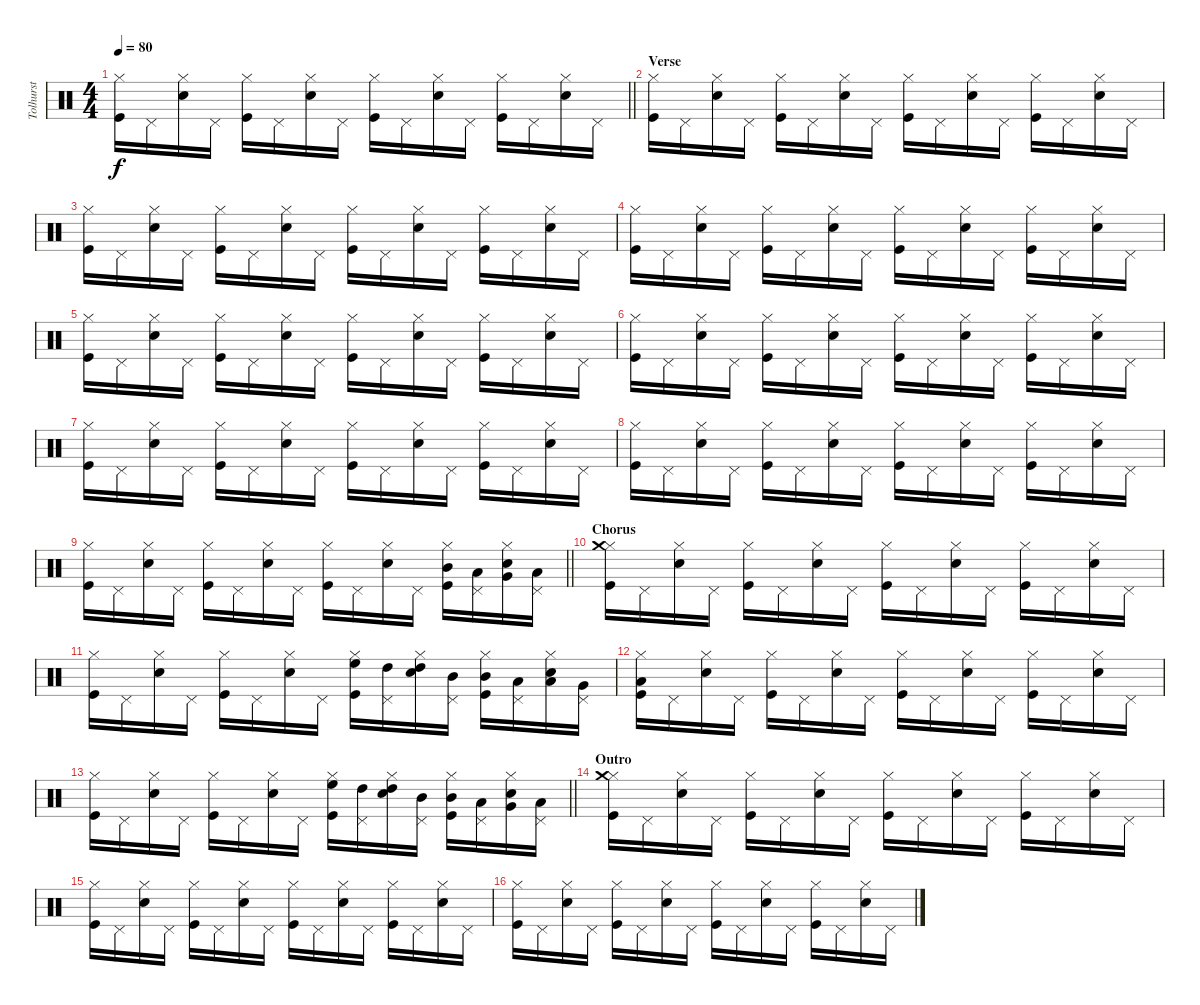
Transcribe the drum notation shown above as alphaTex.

\track ("Tolhurst" "Tolhurst") {instrument percussion}
\staff {score}
\articulation defaults
\ts (4 4)
\tempo 80
\clef neutral
\barLineRight lightlight
\ks c
("Kick (hit)" "Hi-Hat (closed)").16{dy f} "Pedal Hi-Hat (hit)".16 ("Snare (hit) 2" "Hi-Hat (closed)").16 "Pedal Hi-Hat (hit)".16 ("Kick (hit)" "Hi-Hat (closed)").16 "Pedal Hi-Hat (hit)".16 ("Snare (hit) 2" "Hi-Hat (closed)").16 "Pedal Hi-Hat (hit)".16 ("Kick (hit)" "Hi-Hat (closed)").16 "Pedal Hi-Hat (hit)".16 ("Snare (hit) 2" "Hi-Hat (closed)").16 "Pedal Hi-Hat (hit)".16 ("Kick (hit)" "Hi-Hat (closed)").16 "Pedal Hi-Hat (hit)".16 ("Snare (hit) 2" "Hi-Hat (closed)").16 "Pedal Hi-Hat (hit)".16 |
\section ("" "Verse")
("Kick (hit)" "Hi-Hat (closed)").16 "Pedal Hi-Hat (hit)".16 ("Snare (hit) 2" "Hi-Hat (closed)").16 "Pedal Hi-Hat (hit)".16 ("Kick (hit)" "Hi-Hat (closed)").16 "Pedal Hi-Hat (hit)".16 ("Snare (hit) 2" "Hi-Hat (closed)").16 "Pedal Hi-Hat (hit)".16 ("Kick (hit)" "Hi-Hat (closed)").16 "Pedal Hi-Hat (hit)".16 ("Snare (hit) 2" "Hi-Hat (closed)").16 "Pedal Hi-Hat (hit)".16 ("Kick (hit)" "Hi-Hat (closed)").16 "Pedal Hi-Hat (hit)".16 ("Snare (hit) 2" "Hi-Hat (closed)").16 "Pedal Hi-Hat (hit)".16 |
("Kick (hit)" "Hi-Hat (closed)").16 "Pedal Hi-Hat (hit)".16 ("Snare (hit) 2" "Hi-Hat (closed)").16 "Pedal Hi-Hat (hit)".16 ("Kick (hit)" "Hi-Hat (closed)").16 "Pedal Hi-Hat (hit)".16 ("Snare (hit) 2" "Hi-Hat (closed)").16 "Pedal Hi-Hat (hit)".16 ("Kick (hit)" "Hi-Hat (closed)").16 "Pedal Hi-Hat (hit)".16 ("Snare (hit) 2" "Hi-Hat (closed)").16 "Pedal Hi-Hat (hit)".16 ("Kick (hit)" "Hi-Hat (closed)").16 "Pedal Hi-Hat (hit)".16 ("Snare (hit) 2" "Hi-Hat (closed)").16 "Pedal Hi-Hat (hit)".16 |
("Kick (hit)" "Hi-Hat (closed)").16 "Pedal Hi-Hat (hit)".16 ("Snare (hit) 2" "Hi-Hat (closed)").16 "Pedal Hi-Hat (hit)".16 ("Kick (hit)" "Hi-Hat (closed)").16 "Pedal Hi-Hat (hit)".16 ("Snare (hit) 2" "Hi-Hat (closed)").16 "Pedal Hi-Hat (hit)".16 ("Kick (hit)" "Hi-Hat (closed)").16 "Pedal Hi-Hat (hit)".16 ("Snare (hit) 2" "Hi-Hat (closed)").16 "Pedal Hi-Hat (hit)".16 ("Kick (hit)" "Hi-Hat (closed)").16 "Pedal Hi-Hat (hit)".16 ("Snare (hit) 2" "Hi-Hat (closed)").16 "Pedal Hi-Hat (hit)".16 |
("Kick (hit)" "Hi-Hat (closed)").16 "Pedal Hi-Hat (hit)".16 ("Snare (hit) 2" "Hi-Hat (closed)").16 "Pedal Hi-Hat (hit)".16 ("Kick (hit)" "Hi-Hat (closed)").16 "Pedal Hi-Hat (hit)".16 ("Snare (hit) 2" "Hi-Hat (closed)").16 "Pedal Hi-Hat (hit)".16 ("Kick (hit)" "Hi-Hat (closed)").16 "Pedal Hi-Hat (hit)".16 ("Snare (hit) 2" "Hi-Hat (closed)").16 "Pedal Hi-Hat (hit)".16 ("Kick (hit)" "Hi-Hat (closed)").16 "Pedal Hi-Hat (hit)".16 ("Snare (hit) 2" "Hi-Hat (closed)").16 "Pedal Hi-Hat (hit)".16 |
("Kick (hit)" "Hi-Hat (closed)").16 "Pedal Hi-Hat (hit)".16 ("Snare (hit) 2" "Hi-Hat (closed)").16 "Pedal Hi-Hat (hit)".16 ("Kick (hit)" "Hi-Hat (closed)").16 "Pedal Hi-Hat (hit)".16 ("Snare (hit) 2" "Hi-Hat (closed)").16 "Pedal Hi-Hat (hit)".16 ("Kick (hit)" "Hi-Hat (closed)").16 "Pedal Hi-Hat (hit)".16 ("Snare (hit) 2" "Hi-Hat (closed)").16 "Pedal Hi-Hat (hit)".16 ("Kick (hit)" "Hi-Hat (closed)").16 "Pedal Hi-Hat (hit)".16 ("Snare (hit) 2" "Hi-Hat (closed)").16 "Pedal Hi-Hat (hit)".16 |
("Kick (hit)" "Hi-Hat (closed)").16 "Pedal Hi-Hat (hit)".16 ("Snare (hit) 2" "Hi-Hat (closed)").16 "Pedal Hi-Hat (hit)".16 ("Kick (hit)" "Hi-Hat (closed)").16 "Pedal Hi-Hat (hit)".16 ("Snare (hit) 2" "Hi-Hat (closed)").16 "Pedal Hi-Hat (hit)".16 ("Kick (hit)" "Hi-Hat (closed)").16 "Pedal Hi-Hat (hit)".16 ("Snare (hit) 2" "Hi-Hat (closed)").16 "Pedal Hi-Hat (hit)".16 ("Kick (hit)" "Hi-Hat (closed)").16 "Pedal Hi-Hat (hit)".16 ("Snare (hit) 2" "Hi-Hat (closed)").16 "Pedal Hi-Hat (hit)".16 |
("Kick (hit)" "Hi-Hat (closed)").16 "Pedal Hi-Hat (hit)".16 ("Snare (hit) 2" "Hi-Hat (closed)").16 "Pedal Hi-Hat (hit)".16 ("Kick (hit)" "Hi-Hat (closed)").16 "Pedal Hi-Hat (hit)".16 ("Snare (hit) 2" "Hi-Hat (closed)").16 "Pedal Hi-Hat (hit)".16 ("Kick (hit)" "Hi-Hat (closed)").16 "Pedal Hi-Hat (hit)".16 ("Snare (hit) 2" "Hi-Hat (closed)").16 "Pedal Hi-Hat (hit)".16 ("Kick (hit)" "Hi-Hat (closed)").16 "Pedal Hi-Hat (hit)".16 ("Snare (hit) 2" "Hi-Hat (closed)").16 "Pedal Hi-Hat (hit)".16 |
\barLineRight lightlight
("Kick (hit)" "Hi-Hat (closed)").16 "Pedal Hi-Hat (hit)".16 ("Snare (hit) 2" "Hi-Hat (closed)").16 "Pedal Hi-Hat (hit)".16 ("Kick (hit)" "Hi-Hat (closed)").16 "Pedal Hi-Hat (hit)".16 ("Snare (hit) 2" "Hi-Hat (closed)").16 "Pedal Hi-Hat (hit)".16 ("Kick (hit)" "Hi-Hat (closed)").16 "Pedal Hi-Hat (hit)".16 ("Snare (hit) 2" "Hi-Hat (closed)").16 "Pedal Hi-Hat (hit)".16 ("Kick (hit)" "Hi-Hat (closed)" "Mid Tom (hit)").16 ("Pedal Hi-Hat (hit)" "Low Tom (hit)").16 ("Snare (hit) 2" "Hi-Hat (closed)" "Very Low Tom (hit)").16 ("Pedal Hi-Hat (hit)" "Low Floor Tom (hit)").16 |
\section ("" "Chorus")
("Kick (hit)" "Hi-Hat (closed)" "Crash medium (hit)").16 "Pedal Hi-Hat (hit)".16 ("Snare (hit) 2" "Hi-Hat (closed)").16 "Pedal Hi-Hat (hit)".16 ("Kick (hit)" "Hi-Hat (closed)").16 "Pedal Hi-Hat (hit)".16 ("Snare (hit) 2" "Hi-Hat (closed)").16 "Pedal Hi-Hat (hit)".16 ("Kick (hit)" "Hi-Hat (closed)").16 "Pedal Hi-Hat (hit)".16 ("Snare (hit) 2" "Hi-Hat (closed)").16 "Pedal Hi-Hat (hit)".16 ("Kick (hit)" "Hi-Hat (closed)").16 "Pedal Hi-Hat (hit)".16 ("Snare (hit) 2" "Hi-Hat (closed)").16 "Pedal Hi-Hat (hit)".16 |
("Kick (hit)" "Hi-Hat (closed)").16 "Pedal Hi-Hat (hit)".16 ("Snare (hit) 2" "Hi-Hat (closed)").16 "Pedal Hi-Hat (hit)".16 ("Kick (hit)" "Hi-Hat (closed)").16 "Pedal Hi-Hat (hit)".16 ("Snare (hit) 2" "Hi-Hat (closed)").16 "Pedal Hi-Hat (hit)".16 ("Kick (hit)" "Hi-Hat (closed)" "High Floor Tom (hit)").16 ("Pedal Hi-Hat (hit)" "High Tom (hit)").16 ("Snare (hit) 2" "Hi-Hat (closed)" "High Tom (hit)").16 ("Pedal Hi-Hat (hit)" "Mid Tom (hit)").16 ("Kick (hit)" "Hi-Hat (closed)" "Mid Tom (hit)").16 ("Pedal Hi-Hat (hit)" "Low Tom (hit)").16 ("Snare (hit) 2" "Hi-Hat (closed)" "Low Tom (hit)").16 ("Pedal Hi-Hat (hit)" "Very Low Tom (hit)").16 |
("Kick (hit)" "Hi-Hat (closed)" "Low Floor Tom (hit)").16 "Pedal Hi-Hat (hit)".16 ("Snare (hit) 2" "Hi-Hat (closed)").16 "Pedal Hi-Hat (hit)".16 ("Kick (hit)" "Hi-Hat (closed)").16 "Pedal Hi-Hat (hit)".16 ("Snare (hit) 2" "Hi-Hat (closed)").16 "Pedal Hi-Hat (hit)".16 ("Kick (hit)" "Hi-Hat (closed)").16 "Pedal Hi-Hat (hit)".16 ("Snare (hit) 2" "Hi-Hat (closed)").16 "Pedal Hi-Hat (hit)".16 ("Kick (hit)" "Hi-Hat (closed)").16 "Pedal Hi-Hat (hit)".16 ("Snare (hit) 2" "Hi-Hat (closed)").16 "Pedal Hi-Hat (hit)".16 |
\barLineRight lightlight
("Kick (hit)" "Hi-Hat (closed)").16 "Pedal Hi-Hat (hit)".16 ("Snare (hit) 2" "Hi-Hat (closed)").16 "Pedal Hi-Hat (hit)".16 ("Kick (hit)" "Hi-Hat (closed)").16 "Pedal Hi-Hat (hit)".16 ("Snare (hit) 2" "Hi-Hat (closed)").16 "Pedal Hi-Hat (hit)".16 ("Kick (hit)" "Hi-Hat (closed)" "High Floor Tom (hit)").16 ("Pedal Hi-Hat (hit)" "High Tom (hit)").16 ("Snare (hit) 2" "Hi-Hat (closed)" "High Tom (hit)").16 ("Pedal Hi-Hat (hit)" "Mid Tom (hit)").16 ("Kick (hit)" "Hi-Hat (closed)" "Mid Tom (hit)").16 ("Pedal Hi-Hat (hit)" "Low Tom (hit)").16 ("Snare (hit) 2" "Hi-Hat (closed)" "Very Low Tom (hit)").16 ("Pedal Hi-Hat (hit)" "Low Floor Tom (hit)").16 |
\section ("" "Outro")
("Kick (hit)" "Hi-Hat (closed)" "Crash medium (hit)").16 "Pedal Hi-Hat (hit)".16 ("Snare (hit) 2" "Hi-Hat (closed)").16 "Pedal Hi-Hat (hit)".16 ("Kick (hit)" "Hi-Hat (closed)").16 "Pedal Hi-Hat (hit)".16 ("Snare (hit) 2" "Hi-Hat (closed)").16 "Pedal Hi-Hat (hit)".16 ("Kick (hit)" "Hi-Hat (closed)").16 "Pedal Hi-Hat (hit)".16 ("Snare (hit) 2" "Hi-Hat (closed)").16 "Pedal Hi-Hat (hit)".16 ("Kick (hit)" "Hi-Hat (closed)").16 "Pedal Hi-Hat (hit)".16 ("Snare (hit) 2" "Hi-Hat (closed)").16 "Pedal Hi-Hat (hit)".16 |
("Kick (hit)" "Hi-Hat (closed)").16 "Pedal Hi-Hat (hit)".16 ("Snare (hit) 2" "Hi-Hat (closed)").16 "Pedal Hi-Hat (hit)".16 ("Kick (hit)" "Hi-Hat (closed)").16 "Pedal Hi-Hat (hit)".16 ("Snare (hit) 2" "Hi-Hat (closed)").16 "Pedal Hi-Hat (hit)".16 ("Kick (hit)" "Hi-Hat (closed)").16 "Pedal Hi-Hat (hit)".16 ("Snare (hit) 2" "Hi-Hat (closed)").16 "Pedal Hi-Hat (hit)".16 ("Kick (hit)" "Hi-Hat (closed)").16 "Pedal Hi-Hat (hit)".16 ("Snare (hit) 2" "Hi-Hat (closed)").16 "Pedal Hi-Hat (hit)".16 |
("Kick (hit)" "Hi-Hat (closed)").16 "Pedal Hi-Hat (hit)".16 ("Snare (hit) 2" "Hi-Hat (closed)").16 "Pedal Hi-Hat (hit)".16 ("Kick (hit)" "Hi-Hat (closed)").16 "Pedal Hi-Hat (hit)".16 ("Snare (hit) 2" "Hi-Hat (closed)").16 "Pedal Hi-Hat (hit)".16 ("Kick (hit)" "Hi-Hat (closed)").16 "Pedal Hi-Hat (hit)".16 ("Snare (hit) 2" "Hi-Hat (closed)").16 "Pedal Hi-Hat (hit)".16 ("Kick (hit)" "Hi-Hat (closed)").16 "Pedal Hi-Hat (hit)".16 ("Snare (hit) 2" "Hi-Hat (closed)").16 "Pedal Hi-Hat (hit)".16
